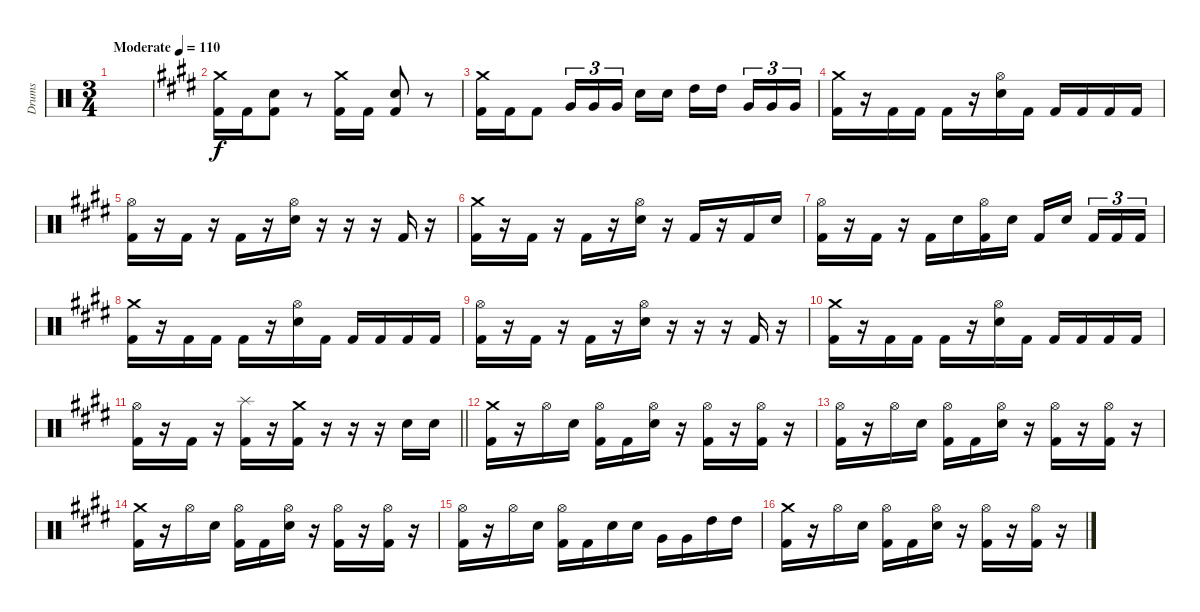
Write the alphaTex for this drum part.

\track ("Drums" "Drums") {instrument percussion}
\staff {score}
\articulation defaults
\ts (3 4)
\tempo (110 "Moderate")
\clef neutral
\ks c
|
\ks c#minor
("Kick (hit) 2" "Crash medium (hit)").16 "Kick (hit) 2".16 ("Kick (hit) 2" "Electric Snare (hit)").8 r.8 ("Kick (hit) 2" "Crash medium (hit)").16 "Kick (hit) 2".16 ("Kick (hit) 2" "Electric Snare (hit)").8 r.8 |
("Kick (hit) 2" "Crash medium (hit)").16 "Kick (hit) 2".16 "Kick (hit) 2".8 "Very Low Tom (hit)".16{tu (3 2)} "Very Low Tom (hit)".16{tu (3 2)} "Very Low Tom (hit)".16{tu (3 2) beam splitsecondary} "Electric Snare (hit)".16 "Electric Snare (hit)".16 "High Tom (hit)".16 "High Tom (hit)".16{beam splitsecondary} "Very Low Tom (hit)".16{tu (3 2)} "Very Low Tom (hit)".16{tu (3 2)} "Very Low Tom (hit)".16{tu (3 2)} |
("Kick (hit) 2" "Crash medium (hit)").16 r.16 "Kick (hit) 2".16 "Kick (hit) 2".16 "Kick (hit) 2".16 r.16 ("Electric Snare (hit)" "Hi-Hat (open)").16 "Kick (hit) 2".16 "Kick (hit) 2".16 "Kick (hit) 2".16 "Kick (hit) 2".16 "Kick (hit) 2".16 |
("Kick (hit) 2" "Hi-Hat (open)").16 r.16 "Kick (hit) 2".16 r.16 "Kick (hit) 2".16 r.16 ("Electric Snare (hit)" "Hi-Hat (open)").16 r.16 r.16 r.16 "Kick (hit) 2".16 r.16 |
("Kick (hit) 2" "Crash medium (hit)").16 r.16 "Kick (hit) 2".16 r.16 "Kick (hit) 2".16 r.16 ("Electric Snare (hit)" "Hi-Hat (open)").16 r.16 "Kick (hit) 2".16 r.16 "Kick (hit) 2".16 "Electric Snare (hit)".16 |
("Kick (hit) 2" "Hi-Hat (open)").16 r.16 "Kick (hit) 2".16 r.16 "Kick (hit) 2".16 "Electric Snare (hit)".16 ("Kick (hit) 2" "Hi-Hat (open)").16 "Electric Snare (hit)".16 "Kick (hit) 2".16 "Electric Snare (hit)".16{beam splitsecondary} "Kick (hit) 2".16{tu (3 2)} "Kick (hit) 2".16{tu (3 2)} "Kick (hit) 2".16{tu (3 2)} |
("Kick (hit) 2" "Crash medium (hit)").16 r.16 "Kick (hit) 2".16 "Kick (hit) 2".16 "Kick (hit) 2".16 r.16 ("Electric Snare (hit)" "Hi-Hat (open)").16 "Kick (hit) 2".16 "Kick (hit) 2".16 "Kick (hit) 2".16 "Kick (hit) 2".16 "Kick (hit) 2".16 |
("Kick (hit) 2" "Hi-Hat (open)").16 r.16 "Kick (hit) 2".16 r.16 "Kick (hit) 2".16 r.16 ("Electric Snare (hit)" "Hi-Hat (open)").16 r.16 r.16 r.16 "Kick (hit) 2".16 r.16 |
("Kick (hit) 2" "Crash medium (hit)").16 r.16 "Kick (hit) 2".16 "Kick (hit) 2".16 "Kick (hit) 2".16 r.16 ("Electric Snare (hit)" "Hi-Hat (open)").16 "Kick (hit) 2".16 "Kick (hit) 2".16 "Kick (hit) 2".16 "Kick (hit) 2".16 "Kick (hit) 2".16 |
\barLineRight lightlight
("Kick (hit) 2" "Hi-Hat (open)").16 r.16 "Kick (hit) 2".16 r.16 ("Kick (hit) 2" "Splash (hit)").16 r.16 ("Kick (hit) 2" "Crash medium (hit)").16 r.16 r.16 r.16 "Electric Snare (hit)".16 "Electric Snare (hit)".16 |
("Kick (hit) 2" "Crash medium (hit)").16 r.16 "Hi-Hat (open)".16 "Electric Snare (hit)".16 ("Kick (hit) 2" "Hi-Hat (open)").16 "Kick (hit) 2".16 ("Electric Snare (hit)" "Hi-Hat (open)").16 r.16 ("Kick (hit) 2" "Hi-Hat (open)").16 r.16 ("Kick (hit) 2" "Hi-Hat (open)").16 r.16 |
("Kick (hit) 2" "Hi-Hat (open)").16 r.16 "Hi-Hat (open)".16 "Electric Snare (hit)".16 ("Kick (hit) 2" "Hi-Hat (open)").16 "Kick (hit) 2".16 ("Electric Snare (hit)" "Hi-Hat (open)").16 r.16 ("Kick (hit) 2" "Hi-Hat (open)").16 r.16 ("Kick (hit) 2" "Hi-Hat (open)").16 r.16 |
("Kick (hit) 2" "Crash medium (hit)").16 r.16 "Hi-Hat (open)".16 "Electric Snare (hit)".16 ("Kick (hit) 2" "Hi-Hat (open)").16 "Kick (hit) 2".16 ("Electric Snare (hit)" "Hi-Hat (open)").16 r.16 ("Kick (hit) 2" "Hi-Hat (open)").16 r.16 ("Kick (hit) 2" "Hi-Hat (open)").16 r.16 |
("Kick (hit) 2" "Hi-Hat (open)").16 r.16 "Hi-Hat (open)".16 "Electric Snare (hit)".16 ("Kick (hit) 2" "Hi-Hat (open)").16 "Kick (hit) 2".16 "Electric Snare (hit)".16 "Electric Snare (hit)".16 "Very Low Tom (hit)".16 "Very Low Tom (hit)".16 "High Tom (hit)".16 "High Tom (hit)".16 |
("Kick (hit) 2" "Crash medium (hit)").16 r.16 "Hi-Hat (open)".16 "Electric Snare (hit)".16 ("Kick (hit) 2" "Hi-Hat (open)").16 "Kick (hit) 2".16 ("Electric Snare (hit)" "Hi-Hat (open)").16 r.16 ("Kick (hit) 2" "Hi-Hat (open)").16 r.16 ("Kick (hit) 2" "Hi-Hat (open)").16 r.16
